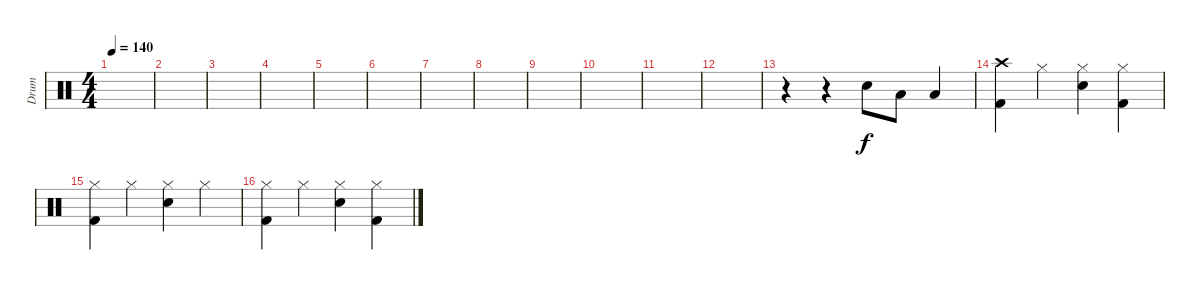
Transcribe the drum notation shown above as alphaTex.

\track ("Drum" "Drum") {instrument percussion}
\staff {score}
\articulation defaults
\ts (4 4)
\tempo 140
\clef neutral
\ks c
|
|
|
|
|
|
|
|
|
|
|
|
r.4 r.4 "Electric Snare (hit)".8 "Low Floor Tom (hit)".8 "Low Floor Tom (hit)".4 |
("Crash high (hit)" "Kick (hit) 2").4 "Hi-Hat (closed)".4 ("Hi-Hat (closed)" "Electric Snare (hit)").4 ("Hi-Hat (closed)" "Kick (hit) 2").4 |
("Hi-Hat (closed)" "Kick (hit) 2").4 "Hi-Hat (closed)".4 ("Hi-Hat (closed)" "Electric Snare (hit)").4 "Hi-Hat (closed)".4 |
("Hi-Hat (closed)" "Kick (hit) 2").4 "Hi-Hat (closed)".4 ("Hi-Hat (closed)" "Electric Snare (hit)").4 ("Hi-Hat (closed)" "Kick (hit) 2").4
